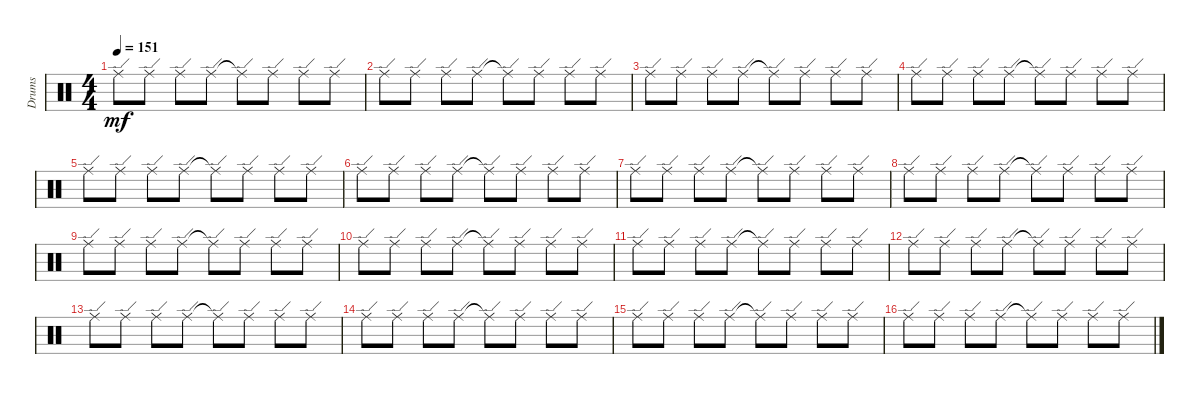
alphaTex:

\bracketExtendMode groupsimilarinstruments
\track ("Drumkit" "Drums") {instrument percussion}
\staff {score}
\articulation defaults
\ts (4 4)
\tempo 151
\clef neutral
\ks aminor "Ride (edge)".8{dy mf} "Ride (edge)".8 "Ride (edge)".8 "Ride (edge)".8 "Ride (edge)"{t}.8 "Ride (edge)".8 "Ride (edge)".8 "Ride (edge)".8
|
"Ride (edge)".8 "Ride (edge)".8 "Ride (edge)".8 "Ride (edge)".8 "Ride (edge)"{t}.8 "Ride (edge)".8 "Ride (edge)".8 "Ride (edge)".8 |
"Ride (edge)".8 "Ride (edge)".8 "Ride (edge)".8 "Ride (edge)".8 "Ride (edge)"{t}.8 "Ride (edge)".8 "Ride (edge)".8 "Ride (edge)".8 |
"Ride (edge)".8 "Ride (edge)".8 "Ride (edge)".8 "Ride (edge)".8 "Ride (edge)"{t}.8 "Ride (edge)".8 "Ride (edge)".8 "Ride (edge)".8 |
"Ride (edge)".8 "Ride (edge)".8 "Ride (edge)".8 "Ride (edge)".8 "Ride (edge)"{t}.8 "Ride (edge)".8 "Ride (edge)".8 "Ride (edge)".8 |
"Ride (edge)".8 "Ride (edge)".8 "Ride (edge)".8 "Ride (edge)".8 "Ride (edge)"{t}.8 "Ride (edge)".8 "Ride (edge)".8 "Ride (edge)".8 |
"Ride (edge)".8 "Ride (edge)".8 "Ride (edge)".8 "Ride (edge)".8 "Ride (edge)"{t}.8 "Ride (edge)".8 "Ride (edge)".8 "Ride (edge)".8 |
"Ride (edge)".8 "Ride (edge)".8 "Ride (edge)".8 "Ride (edge)".8 "Ride (edge)"{t}.8 "Ride (edge)".8 "Ride (edge)".8 "Ride (edge)".8 |
"Ride (edge)".8 "Ride (edge)".8 "Ride (edge)".8 "Ride (edge)".8 "Ride (edge)"{t}.8 "Ride (edge)".8 "Ride (edge)".8 "Ride (edge)".8 |
"Ride (edge)".8 "Ride (edge)".8 "Ride (edge)".8 "Ride (edge)".8 "Ride (edge)"{t}.8 "Ride (edge)".8 "Ride (edge)".8 "Ride (edge)".8 |
"Ride (edge)".8 "Ride (edge)".8 "Ride (edge)".8 "Ride (edge)".8 "Ride (edge)"{t}.8 "Ride (edge)".8 "Ride (edge)".8 "Ride (edge)".8 |
"Ride (edge)".8 "Ride (edge)".8 "Ride (edge)".8 "Ride (edge)".8 "Ride (edge)"{t}.8 "Ride (edge)".8 "Ride (edge)".8 "Ride (edge)".8 |
"Ride (edge)".8 "Ride (edge)".8 "Ride (edge)".8 "Ride (edge)".8 "Ride (edge)"{t}.8 "Ride (edge)".8 "Ride (edge)".8 "Ride (edge)".8 |
"Ride (edge)".8 "Ride (edge)".8 "Ride (edge)".8 "Ride (edge)".8 "Ride (edge)"{t}.8 "Ride (edge)".8 "Ride (edge)".8 "Ride (edge)".8 |
"Ride (edge)".8 "Ride (edge)".8 "Ride (edge)".8 "Ride (edge)".8 "Ride (edge)"{t}.8 "Ride (edge)".8 "Ride (edge)".8 "Ride (edge)".8 |
"Ride (edge)".8 "Ride (edge)".8 "Ride (edge)".8 "Ride (edge)".8 "Ride (edge)"{t}.8 "Ride (edge)".8 "Ride (edge)".8 "Ride (edge)".8
